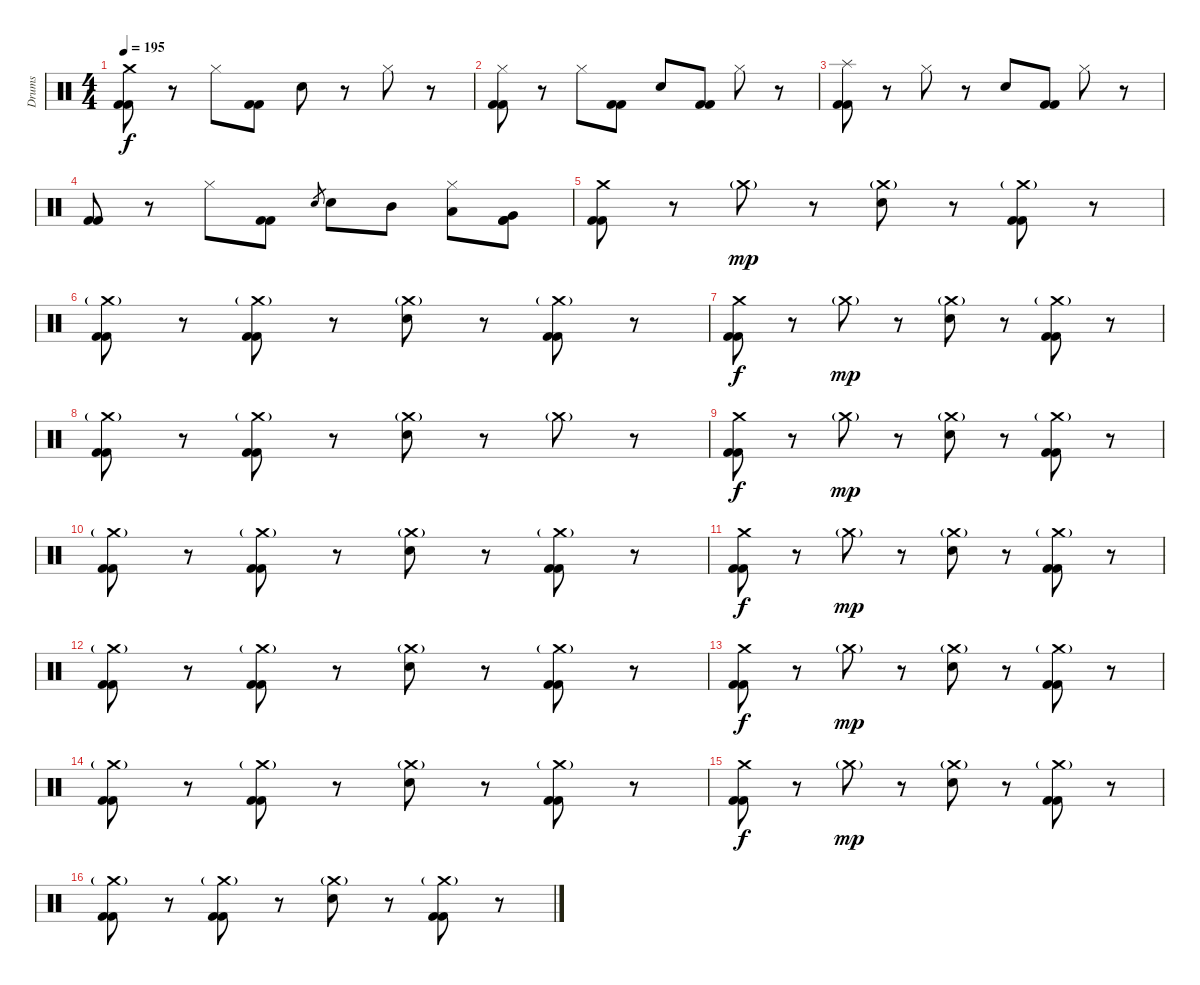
\track ("Drums" "Drums") {instrument percussion}
\staff {score}
\articulation defaults
\ts (4 4)
\tempo 195
\clef neutral
\ks c
("Crash medium (hit)" "Kick (hit) 2" "Kick (hit) 2").8{dy f} r.8 "Hi-Hat (closed)".8 ("Kick (hit) 2" "Kick (hit) 2").8 "Electric Snare (hit)".8 r.8 "Hi-Hat (closed)".8 r.8 |
("Hi-Hat (closed)" "Kick (hit) 2" "Kick (hit) 2").8 r.8 "Hi-Hat (closed)".8 ("Kick (hit) 2" "Kick (hit) 2").8 "Electric Snare (hit)".8 ("Kick (hit) 2" "Kick (hit) 2").8 "Hi-Hat (closed)".8 r.8 |
("Splash (hit)" "Kick (hit) 2" "Kick (hit) 2").8 r.8 "Hi-Hat (closed)".8 r.8 "Electric Snare (hit)".8 ("Kick (hit) 2" "Kick (hit) 2").8 "Hi-Hat (closed)".8 r.8 |
("Kick (hit) 2" "Kick (hit) 2").8 r.8 "Hi-Hat (closed)".8 ("Kick (hit) 2" "Kick (hit) 2").8 "Electric Snare (hit)".8{gr} "Electric Snare (hit)".8 "Mid Tom (hit)".8 ("Hi-Hat (closed)" "Low Tom (hit)").8 ("Very Low Tom (hit)" "Kick (hit) 2" "Kick (hit) 2").8 |
("Crash medium (hit)" "Kick (hit) 2" "Kick (hit) 2").8 r.8 "Crash medium (hit)"{g}.8{dy mp} r.8 ("Crash medium (hit)"{g} "Electric Snare (hit)").8 r.8 ("Crash medium (hit)"{g} "Kick (hit) 2" "Kick (hit) 2").8 r.8 |
("Crash medium (hit)"{g} "Kick (hit) 2" "Kick (hit) 2").8 r.8 ("Crash medium (hit)"{g} "Kick (hit) 2" "Kick (hit) 2").8 r.8 ("Crash medium (hit)"{g} "Electric Snare (hit)").8 r.8 ("Crash medium (hit)"{g} "Kick (hit) 2" "Kick (hit) 2").8 r.8 |
("Crash medium (hit)" "Kick (hit) 2" "Kick (hit) 2").8{dy f} r.8 "Crash medium (hit)"{g}.8{dy mp} r.8 ("Crash medium (hit)"{g} "Electric Snare (hit)").8 r.8 ("Crash medium (hit)"{g} "Kick (hit) 2" "Kick (hit) 2").8 r.8 |
("Crash medium (hit)"{g} "Kick (hit) 2" "Kick (hit) 2").8 r.8 ("Crash medium (hit)"{g} "Kick (hit) 2" "Kick (hit) 2").8 r.8 ("Crash medium (hit)"{g} "Electric Snare (hit)").8 r.8 "Crash medium (hit)"{g}.8 r.8 |
("Crash medium (hit)" "Kick (hit) 2" "Kick (hit) 2").8{dy f} r.8 "Crash medium (hit)"{g}.8{dy mp} r.8 ("Crash medium (hit)"{g} "Electric Snare (hit)").8 r.8 ("Crash medium (hit)"{g} "Kick (hit) 2" "Kick (hit) 2").8 r.8 |
("Crash medium (hit)"{g} "Kick (hit) 2" "Kick (hit) 2").8 r.8 ("Crash medium (hit)"{g} "Kick (hit) 2" "Kick (hit) 2").8 r.8 ("Crash medium (hit)"{g} "Electric Snare (hit)").8 r.8 ("Crash medium (hit)"{g} "Kick (hit) 2" "Kick (hit) 2").8 r.8 |
("Crash medium (hit)" "Kick (hit) 2" "Kick (hit) 2").8{dy f} r.8 "Crash medium (hit)"{g}.8{dy mp} r.8 ("Crash medium (hit)"{g} "Electric Snare (hit)").8 r.8 ("Crash medium (hit)"{g} "Kick (hit) 2" "Kick (hit) 2").8 r.8 |
("Crash medium (hit)"{g} "Kick (hit) 2" "Kick (hit) 2").8 r.8 ("Crash medium (hit)"{g} "Kick (hit) 2" "Kick (hit) 2").8 r.8 ("Crash medium (hit)"{g} "Electric Snare (hit)").8 r.8 ("Crash medium (hit)"{g} "Kick (hit) 2" "Kick (hit) 2").8 r.8 |
("Crash medium (hit)" "Kick (hit) 2" "Kick (hit) 2").8{dy f} r.8 "Crash medium (hit)"{g}.8{dy mp} r.8 ("Crash medium (hit)"{g} "Electric Snare (hit)").8 r.8 ("Crash medium (hit)"{g} "Kick (hit) 2" "Kick (hit) 2").8 r.8 |
("Crash medium (hit)"{g} "Kick (hit) 2" "Kick (hit) 2").8 r.8 ("Crash medium (hit)"{g} "Kick (hit) 2" "Kick (hit) 2").8 r.8 ("Crash medium (hit)"{g} "Electric Snare (hit)").8 r.8 ("Crash medium (hit)"{g} "Kick (hit) 2" "Kick (hit) 2").8 r.8 |
("Crash medium (hit)" "Kick (hit) 2" "Kick (hit) 2").8{dy f} r.8 "Crash medium (hit)"{g}.8{dy mp} r.8 ("Crash medium (hit)"{g} "Electric Snare (hit)").8 r.8 ("Crash medium (hit)"{g} "Kick (hit) 2" "Kick (hit) 2").8 r.8 |
("Crash medium (hit)"{g} "Kick (hit) 2" "Kick (hit) 2").8 r.8 ("Crash medium (hit)"{g} "Kick (hit) 2" "Kick (hit) 2").8 r.8 ("Crash medium (hit)"{g} "Electric Snare (hit)").8 r.8 ("Crash medium (hit)"{g} "Kick (hit) 2" "Kick (hit) 2").8 r.8
